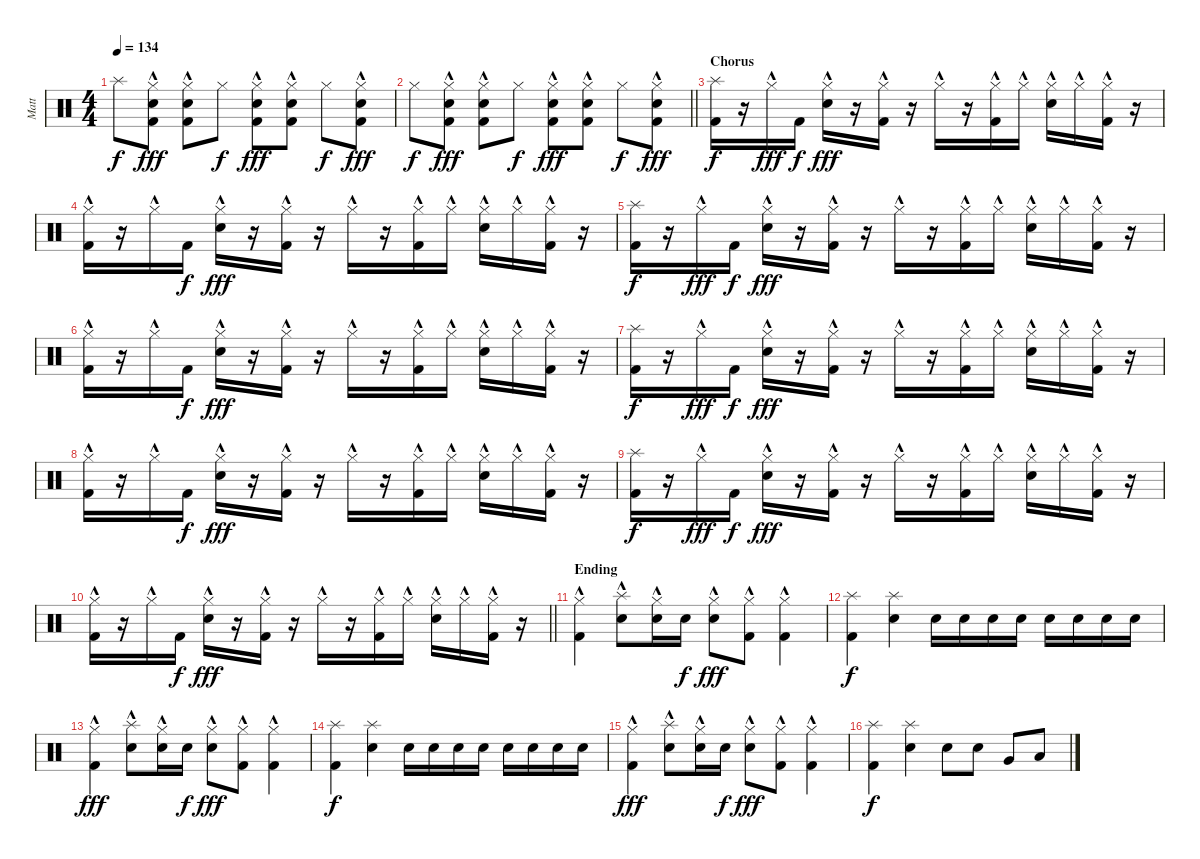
\track ("Matt" "Matt") {instrument percussion}
\staff {score}
\articulation defaults
\ts (4 4)
\tempo 134
\clef neutral
\ks c "Splash (hit)".8{dy f}
("Hi-Hat (closed)"{hac} "Snare (hit) 2" "Kick (hit) 2").8{dy fff} ("Hi-Hat (closed)"{hac} "Snare (hit) 2" "Kick (hit) 2").8 "Hi-Hat (closed)".8{dy f} ("Hi-Hat (closed)"{hac} "Snare (hit) 2" "Kick (hit) 2").8{dy fff} ("Hi-Hat (closed)"{hac} "Snare (hit) 2" "Kick (hit) 2").8 "Hi-Hat (closed)".8{dy f} ("Hi-Hat (closed)"{hac} "Snare (hit) 2" "Kick (hit) 2").8{dy fff} |
\barLineRight lightlight "Hi-Hat (closed)".8{dy f}
("Hi-Hat (closed)"{hac} "Snare (hit) 2" "Kick (hit) 2").8{dy fff} ("Hi-Hat (closed)"{hac} "Snare (hit) 2" "Kick (hit) 2").8 "Hi-Hat (closed)".8{dy f} ("Hi-Hat (closed)"{hac} "Snare (hit) 2" "Kick (hit) 2").8{dy fff} ("Hi-Hat (closed)"{hac} "Snare (hit) 2" "Kick (hit) 2").8 "Hi-Hat (closed)".8{dy f} ("Hi-Hat (closed)"{hac} "Snare (hit) 2" "Kick (hit) 2").8{dy fff} |
\section ("" "Chorus")
("Splash (hit)" "Kick (hit) 2").16{dy f} r.16 "Hi-Hat (closed)"{hac}.16{dy fff} "Kick (hit) 2".16{dy f} ("Hi-Hat (closed)"{hac} "Snare (hit) 2").16{dy fff} r.16 ("Hi-Hat (closed)"{hac} "Kick (hit) 2").16 r.16 "Hi-Hat (closed)"{hac}.16 r.16 ("Hi-Hat (closed)"{hac} "Kick (hit) 2").16 "Hi-Hat (closed)"{hac}.16 ("Hi-Hat (closed)"{hac} "Snare (hit) 2").16 "Hi-Hat (closed)"{hac}.16 ("Hi-Hat (closed)"{hac} "Kick (hit) 2").16 r.16 |
("Hi-Hat (closed)"{hac} "Kick (hit) 2").16 r.16 "Hi-Hat (closed)"{hac}.16 "Kick (hit) 2".16{dy f} ("Hi-Hat (closed)"{hac} "Snare (hit) 2").16{dy fff} r.16 ("Hi-Hat (closed)"{hac} "Kick (hit) 2").16 r.16 "Hi-Hat (closed)"{hac}.16 r.16 ("Hi-Hat (closed)"{hac} "Kick (hit) 2").16 "Hi-Hat (closed)"{hac}.16 ("Hi-Hat (closed)"{hac} "Snare (hit) 2").16 "Hi-Hat (closed)"{hac}.16 ("Hi-Hat (closed)"{hac} "Kick (hit) 2").16 r.16 |
("Splash (hit)" "Kick (hit) 2").16{dy f} r.16 "Hi-Hat (closed)"{hac}.16{dy fff} "Kick (hit) 2".16{dy f} ("Hi-Hat (closed)"{hac} "Snare (hit) 2").16{dy fff} r.16 ("Hi-Hat (closed)"{hac} "Kick (hit) 2").16 r.16 "Hi-Hat (closed)"{hac}.16 r.16 ("Hi-Hat (closed)"{hac} "Kick (hit) 2").16 "Hi-Hat (closed)"{hac}.16 ("Hi-Hat (closed)"{hac} "Snare (hit) 2").16 "Hi-Hat (closed)"{hac}.16 ("Hi-Hat (closed)"{hac} "Kick (hit) 2").16 r.16 |
("Hi-Hat (closed)"{hac} "Kick (hit) 2").16 r.16 "Hi-Hat (closed)"{hac}.16 "Kick (hit) 2".16{dy f} ("Hi-Hat (closed)"{hac} "Snare (hit) 2").16{dy fff} r.16 ("Hi-Hat (closed)"{hac} "Kick (hit) 2").16 r.16 "Hi-Hat (closed)"{hac}.16 r.16 ("Hi-Hat (closed)"{hac} "Kick (hit) 2").16 "Hi-Hat (closed)"{hac}.16 ("Hi-Hat (closed)"{hac} "Snare (hit) 2").16 "Hi-Hat (closed)"{hac}.16 ("Hi-Hat (closed)"{hac} "Kick (hit) 2").16 r.16 |
("Splash (hit)" "Kick (hit) 2").16{dy f} r.16 "Hi-Hat (closed)"{hac}.16{dy fff} "Kick (hit) 2".16{dy f} ("Hi-Hat (closed)"{hac} "Snare (hit) 2").16{dy fff} r.16 ("Hi-Hat (closed)"{hac} "Kick (hit) 2").16 r.16 "Hi-Hat (closed)"{hac}.16 r.16 ("Hi-Hat (closed)"{hac} "Kick (hit) 2").16 "Hi-Hat (closed)"{hac}.16 ("Hi-Hat (closed)"{hac} "Snare (hit) 2").16 "Hi-Hat (closed)"{hac}.16 ("Hi-Hat (closed)"{hac} "Kick (hit) 2").16 r.16 |
("Hi-Hat (closed)"{hac} "Kick (hit) 2").16 r.16 "Hi-Hat (closed)"{hac}.16 "Kick (hit) 2".16{dy f} ("Hi-Hat (closed)"{hac} "Snare (hit) 2").16{dy fff} r.16 ("Hi-Hat (closed)"{hac} "Kick (hit) 2").16 r.16 "Hi-Hat (closed)"{hac}.16 r.16 ("Hi-Hat (closed)"{hac} "Kick (hit) 2").16 "Hi-Hat (closed)"{hac}.16 ("Hi-Hat (closed)"{hac} "Snare (hit) 2").16 "Hi-Hat (closed)"{hac}.16 ("Hi-Hat (closed)"{hac} "Kick (hit) 2").16 r.16 |
("Splash (hit)" "Kick (hit) 2").16{dy f} r.16 "Hi-Hat (closed)"{hac}.16{dy fff} "Kick (hit) 2".16{dy f} ("Hi-Hat (closed)"{hac} "Snare (hit) 2").16{dy fff} r.16 ("Hi-Hat (closed)"{hac} "Kick (hit) 2").16 r.16 "Hi-Hat (closed)"{hac}.16 r.16 ("Hi-Hat (closed)"{hac} "Kick (hit) 2").16 "Hi-Hat (closed)"{hac}.16 ("Hi-Hat (closed)"{hac} "Snare (hit) 2").16 "Hi-Hat (closed)"{hac}.16 ("Hi-Hat (closed)"{hac} "Kick (hit) 2").16 r.16 |
\barLineRight lightlight
("Hi-Hat (closed)"{hac} "Kick (hit) 2").16 r.16 "Hi-Hat (closed)"{hac}.16 "Kick (hit) 2".16{dy f} ("Hi-Hat (closed)"{hac} "Snare (hit) 2").16{dy fff} r.16 ("Hi-Hat (closed)"{hac} "Kick (hit) 2").16 r.16 "Hi-Hat (closed)"{hac}.16 r.16 ("Hi-Hat (closed)"{hac} "Kick (hit) 2").16 "Hi-Hat (closed)"{hac}.16 ("Hi-Hat (closed)"{hac} "Snare (hit) 2").16 "Hi-Hat (closed)"{hac}.16 ("Hi-Hat (closed)"{hac} "Kick (hit) 2").16 r.16 |
\section ("" "Ending")
("Hi-Hat (closed)"{hac} "Kick (hit) 2").4 ("Splash (hit)"{hac} "Snare (hit) 2").8 ("Hi-Hat (closed)"{hac} "Snare (hit) 2").16 "Snare (hit) 2".16{dy f} ("Hi-Hat (closed)"{hac} "Snare (hit) 2").8{dy fff} ("Hi-Hat (closed)"{hac} "Kick (hit) 2").8 ("Hi-Hat (closed)"{hac} "Kick (hit) 2").4 |
("Splash (hit)" "Kick (hit) 2").4{dy f} ("Splash (hit)" "Snare (hit) 2").4 "Snare (hit) 2".16 "Snare (hit) 2".16 "Snare (hit) 2".16 "Snare (hit) 2".16 "Snare (hit) 2".16 "Snare (hit) 2".16 "Snare (hit) 2".16 "Snare (hit) 2".16 |
("Hi-Hat (closed)"{hac} "Kick (hit) 2").4{dy fff} ("Splash (hit)"{hac} "Snare (hit) 2").8 ("Hi-Hat (closed)"{hac} "Snare (hit) 2").16 "Snare (hit) 2".16{dy f} ("Hi-Hat (closed)"{hac} "Snare (hit) 2").8{dy fff} ("Hi-Hat (closed)"{hac} "Kick (hit) 2").8 ("Hi-Hat (closed)"{hac} "Kick (hit) 2").4 |
("Splash (hit)" "Kick (hit) 2").4{dy f} ("Splash (hit)" "Snare (hit) 2").4 "Snare (hit) 2".16 "Snare (hit) 2".16 "Snare (hit) 2".16 "Snare (hit) 2".16 "Snare (hit) 2".16 "Snare (hit) 2".16 "Snare (hit) 2".16 "Snare (hit) 2".16 |
("Hi-Hat (closed)"{hac} "Kick (hit) 2").4{dy fff} ("Splash (hit)"{hac} "Snare (hit) 2").8 ("Hi-Hat (closed)"{hac} "Snare (hit) 2").16 "Snare (hit) 2".16{dy f} ("Hi-Hat (closed)"{hac} "Snare (hit) 2").8{dy fff} ("Hi-Hat (closed)"{hac} "Kick (hit) 2").8 ("Hi-Hat (closed)"{hac} "Kick (hit) 2").4 |
("Splash (hit)" "Kick (hit) 2").4{dy f} ("Splash (hit)" "Snare (hit) 2").4 "Snare (hit) 2".8 "Snare (hit) 2".8 "Very Low Tom (hit)".8 "Low Floor Tom (hit)".8
